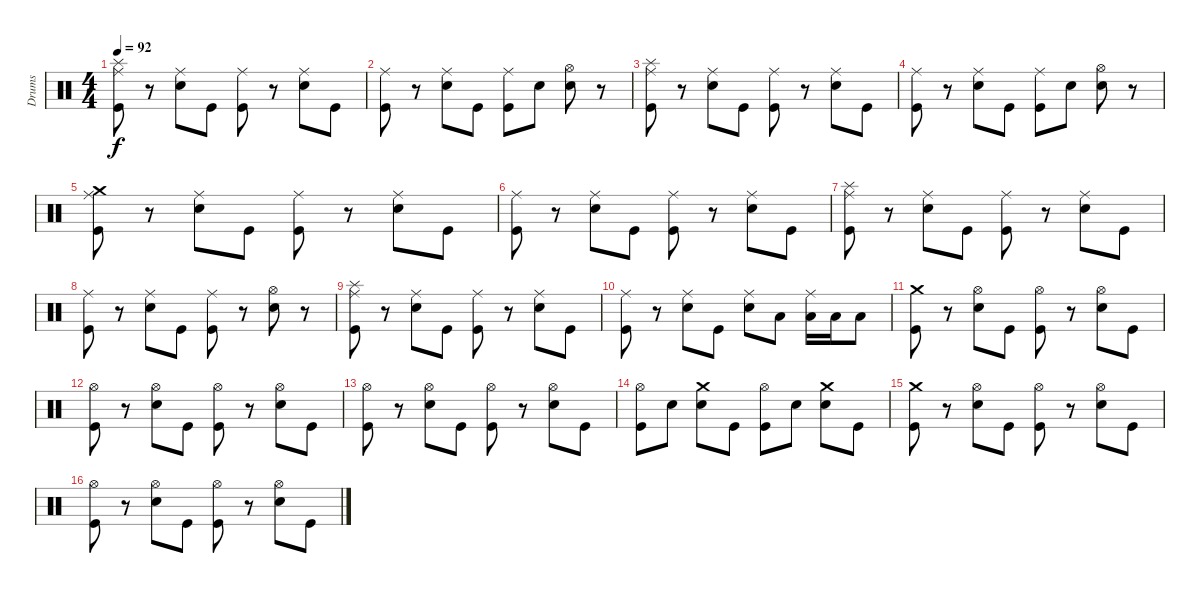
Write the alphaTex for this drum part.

\track ("Drums" "Drums") {instrument percussion}
\staff {score}
\articulation defaults
\ts (4 4)
\tempo 92
\clef neutral
\ks c
("Splash (hit)" "Ride (middle)" "Kick (hit)").8{dy f} r.8 ("Ride (middle)" "Snare (hit) 2").8 "Kick (hit)".8 ("Ride (middle)" "Kick (hit)").8 r.8 ("Ride (middle)" "Snare (hit) 2").8 "Kick (hit)".8 |
("Ride (middle)" "Kick (hit)").8 r.8 ("Ride (middle)" "Snare (hit) 2").8 "Kick (hit)".8 ("Ride (middle)" "Kick (hit)").8 "Snare (hit) 2".8 ("Hi-Hat (open)" "Snare (hit) 2").8 r.8 |
("Splash (hit)" "Ride (middle)" "Kick (hit)").8 r.8 ("Ride (middle)" "Snare (hit) 2").8 "Kick (hit)".8 ("Ride (middle)" "Kick (hit)").8 r.8 ("Ride (middle)" "Snare (hit) 2").8 "Kick (hit)".8 |
("Ride (middle)" "Kick (hit)").8 r.8 ("Ride (middle)" "Snare (hit) 2").8 "Kick (hit)".8 ("Ride (middle)" "Kick (hit)").8 "Snare (hit) 2".8 ("Hi-Hat (open)" "Snare (hit) 2").8 r.8 |
("Crash medium (hit)" "Ride (middle)" "Kick (hit)").8 r.8 ("Ride (middle)" "Snare (hit) 2").8 "Kick (hit)".8 ("Ride (middle)" "Kick (hit)").8 r.8 ("Ride (middle)" "Snare (hit) 2").8 "Kick (hit)".8 |
("Ride (middle)" "Kick (hit)").8 r.8 ("Ride (middle)" "Snare (hit) 2").8 "Kick (hit)".8 ("Ride (middle)" "Kick (hit)").8 r.8 ("Ride (middle)" "Snare (hit) 2").8 "Kick (hit)".8 |
("Splash (hit)" "Ride (middle)" "Kick (hit)").8 r.8 ("Ride (middle)" "Snare (hit) 2").8 "Kick (hit)".8 ("Ride (middle)" "Kick (hit)").8 r.8 ("Ride (middle)" "Snare (hit) 2").8 "Kick (hit)".8 |
("Ride (middle)" "Kick (hit)").8 r.8 ("Ride (middle)" "Snare (hit) 2").8 "Kick (hit)".8 ("Ride (middle)" "Kick (hit)").8 r.8 ("Hi-Hat (open)" "Snare (hit) 2").8 r.8 |
("Splash (hit)" "Ride (middle)" "Kick (hit)").8 r.8 ("Ride (middle)" "Snare (hit) 2").8 "Kick (hit)".8 ("Ride (middle)" "Kick (hit)").8 r.8 ("Ride (middle)" "Snare (hit) 2").8 "Kick (hit)".8 |
("Ride (middle)" "Kick (hit)").8 r.8 ("Ride (middle)" "Snare (hit) 2").8 "Kick (hit)".8 ("Ride (middle)" "Snare (hit) 2").8 "Low Tom (hit)".8 ("Ride (middle)" "Low Floor Tom (hit)").16 "Low Floor Tom (hit)".16 "Low Floor Tom (hit)".8 |
("Crash medium (hit)" "Kick (hit)").8 r.8 ("Hi-Hat (open)" "Snare (hit) 2").8 "Kick (hit)".8 ("Hi-Hat (open)" "Kick (hit)").8 r.8 ("Hi-Hat (open)" "Snare (hit) 2").8 "Kick (hit)".8 |
("Hi-Hat (open)" "Kick (hit)").8 r.8 ("Hi-Hat (open)" "Snare (hit) 2").8 "Kick (hit)".8 ("Hi-Hat (open)" "Kick (hit)").8 r.8 ("Hi-Hat (open)" "Snare (hit) 2").8 "Kick (hit)".8 |
("Hi-Hat (open)" "Kick (hit)").8 r.8 ("Hi-Hat (open)" "Snare (hit) 2").8 "Kick (hit)".8 ("Hi-Hat (open)" "Kick (hit)").8 r.8 ("Hi-Hat (open)" "Snare (hit) 2").8 "Kick (hit)".8 |
("Hi-Hat (open)" "Kick (hit)").8 "Snare (hit) 2".8 ("Crash medium (hit)" "Snare (hit) 2").8 "Kick (hit)".8 ("Hi-Hat (open)" "Kick (hit)").8 "Snare (hit) 2".8 ("Crash medium (hit)" "Snare (hit) 2").8 "Kick (hit)".8 |
("Crash medium (hit)" "Kick (hit)").8 r.8 ("Hi-Hat (open)" "Snare (hit) 2").8 "Kick (hit)".8 ("Hi-Hat (open)" "Kick (hit)").8 r.8 ("Hi-Hat (open)" "Snare (hit) 2").8 "Kick (hit)".8 |
("Hi-Hat (open)" "Kick (hit)").8 r.8 ("Hi-Hat (open)" "Snare (hit) 2").8 "Kick (hit)".8 ("Hi-Hat (open)" "Kick (hit)").8 r.8 ("Hi-Hat (open)" "Snare (hit) 2").8 "Kick (hit)".8
